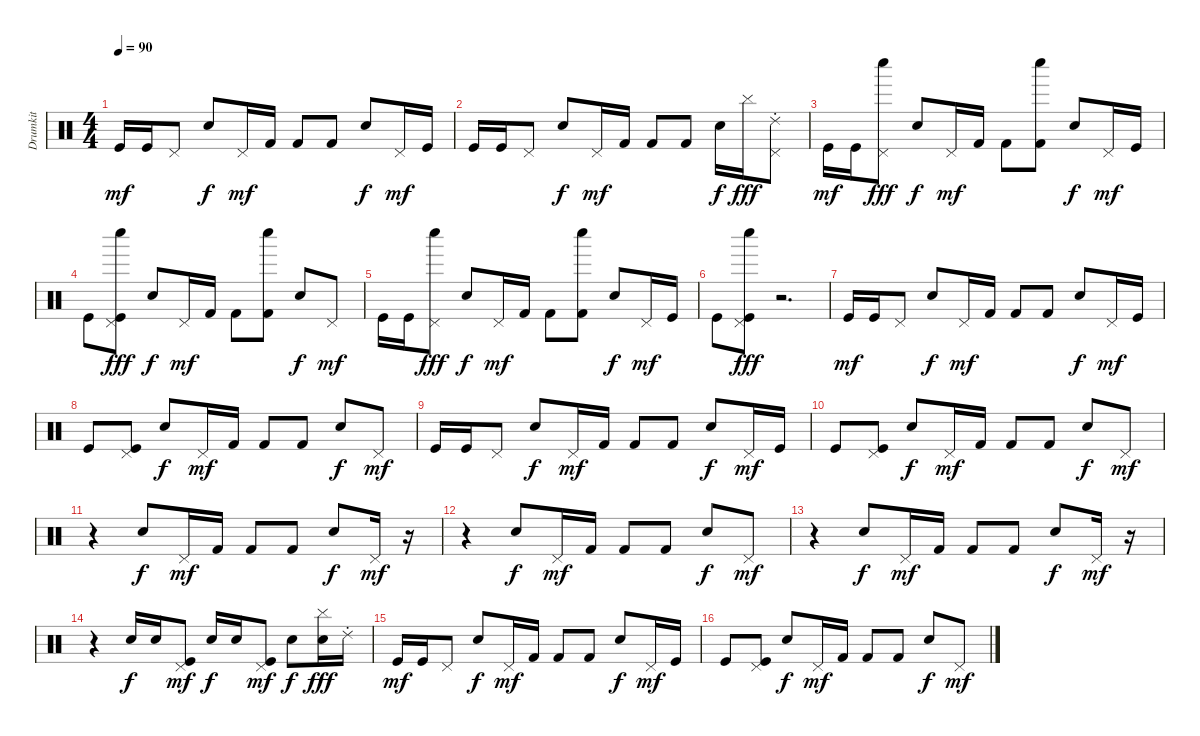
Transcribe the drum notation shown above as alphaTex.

\track ("Drumkit" "Drumkit") {instrument percussion}
\staff {score}
\articulation defaults
\ts (4 4)
\tempo 90
\clef neutral
\ks c "Kick (hit)".16{dy mf} "Kick (hit)".16 "Pedal Hi-Hat (hit)".8 "Snare (hit) 2".8{dy f} "Pedal Hi-Hat (hit)".16{dy mf} "Kick (hit) 2".16 "Kick (hit) 2".8 "Kick (hit) 2".8 "Snare (hit) 2".8{dy f} "Pedal Hi-Hat (hit)".16{dy mf} "Kick (hit)".16
|
"Kick (hit)".16 "Kick (hit)".16 "Pedal Hi-Hat (hit)".8 "Snare (hit) 2".8{dy f} "Pedal Hi-Hat (hit)".16{dy mf} "Kick (hit) 2".16 "Kick (hit) 2".8 "Kick (hit) 2".8 "Snare (hit) 2".16{dy f} "Cymbal (hit)".16{dy fff} ("Pedal Hi-Hat (hit)" "Ride (choke) 2").8 |
"Kick (hit)".16{dy mf} "Kick (hit)".16 ("Pedal Hi-Hat (hit)" "Whistle low (hit)").8{dy fff} "Snare (hit) 2".8{dy f} "Pedal Hi-Hat (hit)".16{dy mf} "Kick (hit) 2".16 "Kick (hit) 2".8 ("Whistle low (hit)" "Kick (hit) 2").8 "Snare (hit) 2".8{dy f} "Pedal Hi-Hat (hit)".16{dy mf} "Kick (hit)".16 |
"Kick (hit)".8 ("Pedal Hi-Hat (hit)" "Kick (hit)" "Whistle low (hit)").8{dy fff} "Snare (hit) 2".8{dy f} "Pedal Hi-Hat (hit)".16{dy mf} "Kick (hit) 2".16 "Kick (hit) 2".8 ("Whistle low (hit)" "Kick (hit) 2").8 "Snare (hit) 2".8{dy f} "Pedal Hi-Hat (hit)".8{dy mf} |
"Kick (hit)".16 "Kick (hit)".16 ("Whistle low (hit)" "Pedal Hi-Hat (hit)").8{dy fff} "Snare (hit) 2".8{dy f} "Pedal Hi-Hat (hit)".16{dy mf} "Kick (hit) 2".16 "Kick (hit) 2".8 ("Whistle low (hit)" "Kick (hit) 2").8 "Snare (hit) 2".8{dy f} "Pedal Hi-Hat (hit)".16{dy mf} "Kick (hit)".16 |
"Kick (hit)".8 ("Pedal Hi-Hat (hit)" "Kick (hit)" "Whistle low (hit)").8{dy fff} r.2{d} |
"Kick (hit)".16{dy mf} "Kick (hit)".16 "Pedal Hi-Hat (hit)".8 "Snare (hit) 2".8{dy f} "Pedal Hi-Hat (hit)".16{dy mf} "Kick (hit) 2".16 "Kick (hit) 2".8 "Kick (hit) 2".8 "Snare (hit) 2".8{dy f} "Pedal Hi-Hat (hit)".16{dy mf} "Kick (hit)".16 |
"Kick (hit)".8 ("Pedal Hi-Hat (hit)" "Kick (hit)").8 "Snare (hit) 2".8{dy f} "Pedal Hi-Hat (hit)".16{dy mf} "Kick (hit) 2".16 "Kick (hit) 2".8 "Kick (hit) 2".8 "Snare (hit) 2".8{dy f} "Pedal Hi-Hat (hit)".8{dy mf} |
"Kick (hit)".16 "Kick (hit)".16 "Pedal Hi-Hat (hit)".8 "Snare (hit) 2".8{dy f} "Pedal Hi-Hat (hit)".16{dy mf} "Kick (hit) 2".16 "Kick (hit) 2".8 "Kick (hit) 2".8 "Snare (hit) 2".8{dy f} "Pedal Hi-Hat (hit)".16{dy mf} "Kick (hit)".16 |
"Kick (hit)".8 ("Pedal Hi-Hat (hit)" "Kick (hit)").8 "Snare (hit) 2".8{dy f} "Pedal Hi-Hat (hit)".16{dy mf} "Kick (hit) 2".16 "Kick (hit) 2".8 "Kick (hit) 2".8 "Snare (hit) 2".8{dy f} "Pedal Hi-Hat (hit)".8{dy mf} |
r.4 "Snare (hit) 2".8{dy f} "Pedal Hi-Hat (hit)".16{dy mf} "Kick (hit) 2".16 "Kick (hit) 2".8 "Kick (hit) 2".8 "Snare (hit) 2".8{dy f} "Pedal Hi-Hat (hit)".16{dy mf} r.16 |
r.4 "Snare (hit) 2".8{dy f} "Pedal Hi-Hat (hit)".16{dy mf} "Kick (hit) 2".16 "Kick (hit) 2".8 "Kick (hit) 2".8 "Snare (hit) 2".8{dy f} "Pedal Hi-Hat (hit)".8{dy mf} |
r.4 "Snare (hit) 2".8{dy f} "Pedal Hi-Hat (hit)".16{dy mf} "Kick (hit) 2".16 "Kick (hit) 2".8 "Kick (hit) 2".8 "Snare (hit) 2".8{dy f} "Pedal Hi-Hat (hit)".16{dy mf} r.16 |
r.4 "Snare (hit) 2".16{dy f} "Snare (hit) 2".16 ("Kick (hit)" "Pedal Hi-Hat (hit)").8{dy mf} "Snare (hit) 2".16{dy f} "Snare (hit) 2".16 ("Kick (hit)" "Pedal Hi-Hat (hit)").8{dy mf} "Snare (hit) 2".8{dy f} ("Snare (hit) 2" "Cymbal (hit)").16{dy fff} "Ride (choke) 2".16 |
"Kick (hit)".16{dy mf} "Kick (hit)".16 "Pedal Hi-Hat (hit)".8 "Snare (hit) 2".8{dy f} "Pedal Hi-Hat (hit)".16{dy mf} "Kick (hit) 2".16 "Kick (hit) 2".8 "Kick (hit) 2".8 "Snare (hit) 2".8{dy f} "Pedal Hi-Hat (hit)".16{dy mf} "Kick (hit)".16 |
"Kick (hit)".8 ("Pedal Hi-Hat (hit)" "Kick (hit)").8 "Snare (hit) 2".8{dy f} "Pedal Hi-Hat (hit)".16{dy mf} "Kick (hit) 2".16 "Kick (hit) 2".8 "Kick (hit) 2".8 "Snare (hit) 2".8{dy f} "Pedal Hi-Hat (hit)".8{dy mf}
